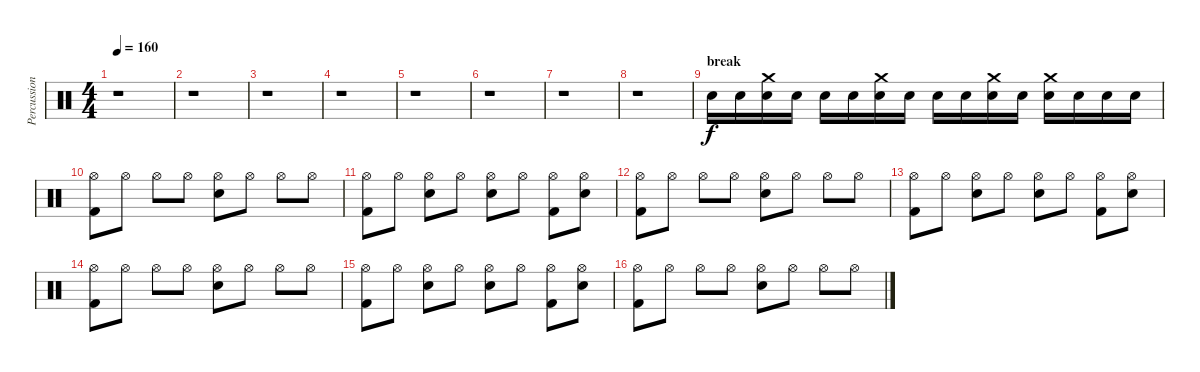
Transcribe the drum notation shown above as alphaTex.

\track ("Percussions" "Percussion") {instrument percussion}
\staff {score}
\articulation defaults
\ts (4 4)
\tempo 160
\clef neutral
\ks c
r.1{dy f} |
r.1 |
r.1 |
r.1 |
r.1 |
r.1 |
r.1 |
r.1 |
\section ("" "break")
"Electric Snare (hit)".16 "Electric Snare (hit)".16 ("Electric Snare (hit)" "Crash medium (hit)").16 "Electric Snare (hit)".16 "Electric Snare (hit)".16 "Electric Snare (hit)".16 ("Electric Snare (hit)" "Crash medium (hit)").16 "Electric Snare (hit)".16 "Electric Snare (hit)".16 "Electric Snare (hit)".16 ("Electric Snare (hit)" "Crash medium (hit)").16 "Electric Snare (hit)".16 ("Electric Snare (hit)" "Crash medium (hit)").16 "Electric Snare (hit)".16 "Electric Snare (hit)".16 "Electric Snare (hit)".16 |
("Hi-Hat (open)" "Kick (hit) 2").8 "Hi-Hat (open)".8 "Hi-Hat (open)".8 "Hi-Hat (open)".8 ("Hi-Hat (open)" "Electric Snare (hit)").8 "Hi-Hat (open)".8 "Hi-Hat (open)".8 "Hi-Hat (open)".8 |
("Hi-Hat (open)" "Kick (hit) 2").8 "Hi-Hat (open)".8 ("Hi-Hat (open)" "Electric Snare (hit)").8 "Hi-Hat (open)".8 ("Hi-Hat (open)" "Electric Snare (hit)").8 "Hi-Hat (open)".8 ("Hi-Hat (open)" "Kick (hit) 2").8 ("Hi-Hat (open)" "Electric Snare (hit)").8 |
("Hi-Hat (open)" "Kick (hit) 2").8 "Hi-Hat (open)".8 "Hi-Hat (open)".8 "Hi-Hat (open)".8 ("Hi-Hat (open)" "Electric Snare (hit)").8 "Hi-Hat (open)".8 "Hi-Hat (open)".8 "Hi-Hat (open)".8 |
("Hi-Hat (open)" "Kick (hit) 2").8 "Hi-Hat (open)".8 ("Hi-Hat (open)" "Electric Snare (hit)").8 "Hi-Hat (open)".8 ("Hi-Hat (open)" "Electric Snare (hit)").8 "Hi-Hat (open)".8 ("Hi-Hat (open)" "Kick (hit) 2").8 ("Hi-Hat (open)" "Electric Snare (hit)").8 |
("Hi-Hat (open)" "Kick (hit) 2").8 "Hi-Hat (open)".8 "Hi-Hat (open)".8 "Hi-Hat (open)".8 ("Hi-Hat (open)" "Electric Snare (hit)").8 "Hi-Hat (open)".8 "Hi-Hat (open)".8 "Hi-Hat (open)".8 |
("Hi-Hat (open)" "Kick (hit) 2").8 "Hi-Hat (open)".8 ("Hi-Hat (open)" "Electric Snare (hit)").8 "Hi-Hat (open)".8 ("Hi-Hat (open)" "Electric Snare (hit)").8 "Hi-Hat (open)".8 ("Hi-Hat (open)" "Kick (hit) 2").8 ("Hi-Hat (open)" "Electric Snare (hit)").8 |
("Hi-Hat (open)" "Kick (hit) 2").8 "Hi-Hat (open)".8 "Hi-Hat (open)".8 "Hi-Hat (open)".8 ("Hi-Hat (open)" "Electric Snare (hit)").8 "Hi-Hat (open)".8 "Hi-Hat (open)".8 "Hi-Hat (open)".8
